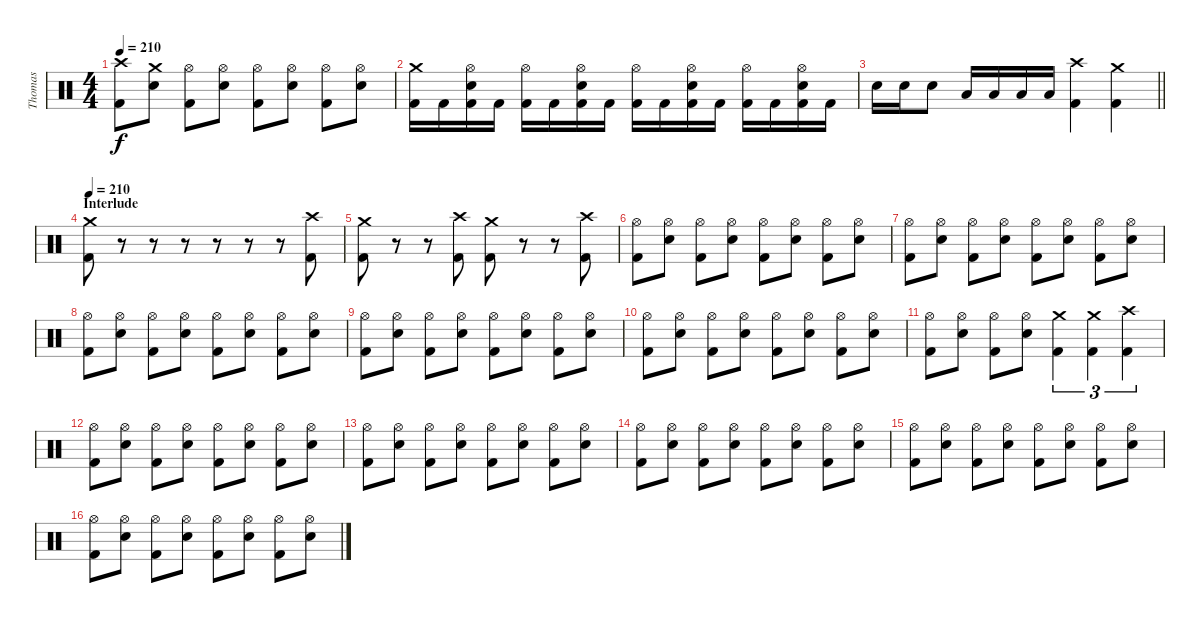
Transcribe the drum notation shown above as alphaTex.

\track ("Thomas" "Thomas") {instrument percussion}
\staff {score}
\articulation defaults
\ts (4 4)
\tempo 210
\clef neutral
\ks c
("Crash high (hit)" "Kick (hit) 2").8{dy f} ("Crash medium (hit)" "Snare (hit) 2").8 ("Hi-Hat (open)" "Kick (hit) 2").8 ("Hi-Hat (open)" "Snare (hit) 2").8 ("Hi-Hat (open)" "Kick (hit) 2").8 ("Hi-Hat (open)" "Snare (hit) 2").8 ("Hi-Hat (open)" "Kick (hit) 2").8 ("Hi-Hat (open)" "Snare (hit) 2").8 |
("Crash medium (hit)" "Kick (hit) 2").16 "Kick (hit) 2".16 ("Hi-Hat (open)" "Snare (hit) 2" "Kick (hit) 2").16 "Kick (hit) 2".16 ("Hi-Hat (open)" "Kick (hit) 2").16 "Kick (hit) 2".16 ("Hi-Hat (open)" "Snare (hit) 2" "Kick (hit) 2").16 "Kick (hit) 2".16 ("Hi-Hat (open)" "Kick (hit) 2").16 "Kick (hit) 2".16 ("Hi-Hat (open)" "Snare (hit) 2" "Kick (hit) 2").16 "Kick (hit) 2".16 ("Hi-Hat (open)" "Kick (hit) 2").16 "Kick (hit) 2".16 ("Hi-Hat (open)" "Snare (hit) 2" "Kick (hit) 2").16 "Kick (hit) 2".16 |
\barLineRight lightlight "Snare (hit) 2".16 "Snare (hit) 2".16 "Snare (hit) 2".8 "Low Floor Tom (hit)".16 "Low Floor Tom (hit)".16 "Low Floor Tom (hit)".16 "Low Floor Tom (hit)".16
("Crash high (hit)" "Kick (hit) 2").4 ("Crash medium (hit)" "Kick (hit) 2").4 |
\section ("" "Interlude")
\tempo 210
("Crash medium (hit)" "Kick (hit) 2").8 r.8 r.8 r.8 r.8 r.8 r.8 ("Crash high (hit)" "Kick (hit) 2").8 |
("Crash medium (hit)" "Kick (hit) 2").8 r.8 r.8 ("Crash high (hit)" "Kick (hit) 2").8 ("Crash medium (hit)" "Kick (hit) 2").8 r.8 r.8 ("Crash high (hit)" "Kick (hit) 2").8 |
("Hi-Hat (open)" "Kick (hit) 2").8 ("Hi-Hat (open)" "Snare (hit) 2").8 ("Hi-Hat (open)" "Kick (hit) 2").8 ("Hi-Hat (open)" "Snare (hit) 2").8 ("Hi-Hat (open)" "Kick (hit) 2").8 ("Hi-Hat (open)" "Snare (hit) 2").8 ("Hi-Hat (open)" "Kick (hit) 2").8 ("Hi-Hat (open)" "Snare (hit) 2").8 |
("Hi-Hat (open)" "Kick (hit) 2").8 ("Hi-Hat (open)" "Snare (hit) 2").8 ("Hi-Hat (open)" "Kick (hit) 2").8 ("Hi-Hat (open)" "Snare (hit) 2").8 ("Hi-Hat (open)" "Kick (hit) 2").8 ("Hi-Hat (open)" "Snare (hit) 2").8 ("Hi-Hat (open)" "Kick (hit) 2").8 ("Hi-Hat (open)" "Snare (hit) 2").8 |
("Hi-Hat (open)" "Kick (hit) 2").8 ("Hi-Hat (open)" "Snare (hit) 2").8 ("Hi-Hat (open)" "Kick (hit) 2").8 ("Hi-Hat (open)" "Snare (hit) 2").8 ("Hi-Hat (open)" "Kick (hit) 2").8 ("Hi-Hat (open)" "Snare (hit) 2").8 ("Hi-Hat (open)" "Kick (hit) 2").8 ("Hi-Hat (open)" "Snare (hit) 2").8 |
("Hi-Hat (open)" "Kick (hit) 2").8 ("Hi-Hat (open)" "Snare (hit) 2").8 ("Hi-Hat (open)" "Kick (hit) 2").8 ("Hi-Hat (open)" "Snare (hit) 2").8 ("Hi-Hat (open)" "Kick (hit) 2").8 ("Hi-Hat (open)" "Snare (hit) 2").8 ("Hi-Hat (open)" "Kick (hit) 2").8 ("Hi-Hat (open)" "Snare (hit) 2").8 |
("Hi-Hat (open)" "Kick (hit) 2").8 ("Hi-Hat (open)" "Snare (hit) 2").8 ("Hi-Hat (open)" "Kick (hit) 2").8 ("Hi-Hat (open)" "Snare (hit) 2").8 ("Hi-Hat (open)" "Kick (hit) 2").8 ("Hi-Hat (open)" "Snare (hit) 2").8 ("Hi-Hat (open)" "Kick (hit) 2").8 ("Hi-Hat (open)" "Snare (hit) 2").8 |
("Hi-Hat (open)" "Kick (hit) 2").8 ("Hi-Hat (open)" "Snare (hit) 2").8 ("Hi-Hat (open)" "Kick (hit) 2").8 ("Hi-Hat (open)" "Snare (hit) 2").8 ("Crash medium (hit)" "Kick (hit) 2").4{tu (3 2)} ("Crash medium (hit)" "Kick (hit) 2").4{tu (3 2)} ("Crash high (hit)" "Kick (hit) 2").4{tu (3 2)} |
("Hi-Hat (open)" "Kick (hit) 2").8 ("Hi-Hat (open)" "Snare (hit) 2").8 ("Hi-Hat (open)" "Kick (hit) 2").8 ("Hi-Hat (open)" "Snare (hit) 2").8 ("Hi-Hat (open)" "Kick (hit) 2").8 ("Hi-Hat (open)" "Snare (hit) 2").8 ("Hi-Hat (open)" "Kick (hit) 2").8 ("Hi-Hat (open)" "Snare (hit) 2").8 |
("Hi-Hat (open)" "Kick (hit) 2").8 ("Hi-Hat (open)" "Snare (hit) 2").8 ("Hi-Hat (open)" "Kick (hit) 2").8 ("Hi-Hat (open)" "Snare (hit) 2").8 ("Hi-Hat (open)" "Kick (hit) 2").8 ("Hi-Hat (open)" "Snare (hit) 2").8 ("Hi-Hat (open)" "Kick (hit) 2").8 ("Hi-Hat (open)" "Snare (hit) 2").8 |
("Hi-Hat (open)" "Kick (hit) 2").8 ("Hi-Hat (open)" "Snare (hit) 2").8 ("Hi-Hat (open)" "Kick (hit) 2").8 ("Hi-Hat (open)" "Snare (hit) 2").8 ("Hi-Hat (open)" "Kick (hit) 2").8 ("Hi-Hat (open)" "Snare (hit) 2").8 ("Hi-Hat (open)" "Kick (hit) 2").8 ("Hi-Hat (open)" "Snare (hit) 2").8 |
("Hi-Hat (open)" "Kick (hit) 2").8 ("Hi-Hat (open)" "Snare (hit) 2").8 ("Hi-Hat (open)" "Kick (hit) 2").8 ("Hi-Hat (open)" "Snare (hit) 2").8 ("Hi-Hat (open)" "Kick (hit) 2").8 ("Hi-Hat (open)" "Snare (hit) 2").8 ("Hi-Hat (open)" "Kick (hit) 2").8 ("Hi-Hat (open)" "Snare (hit) 2").8 |
("Hi-Hat (open)" "Kick (hit) 2").8 ("Hi-Hat (open)" "Snare (hit) 2").8 ("Hi-Hat (open)" "Kick (hit) 2").8 ("Hi-Hat (open)" "Snare (hit) 2").8 ("Hi-Hat (open)" "Kick (hit) 2").8 ("Hi-Hat (open)" "Snare (hit) 2").8 ("Hi-Hat (open)" "Kick (hit) 2").8 ("Hi-Hat (open)" "Snare (hit) 2").8
